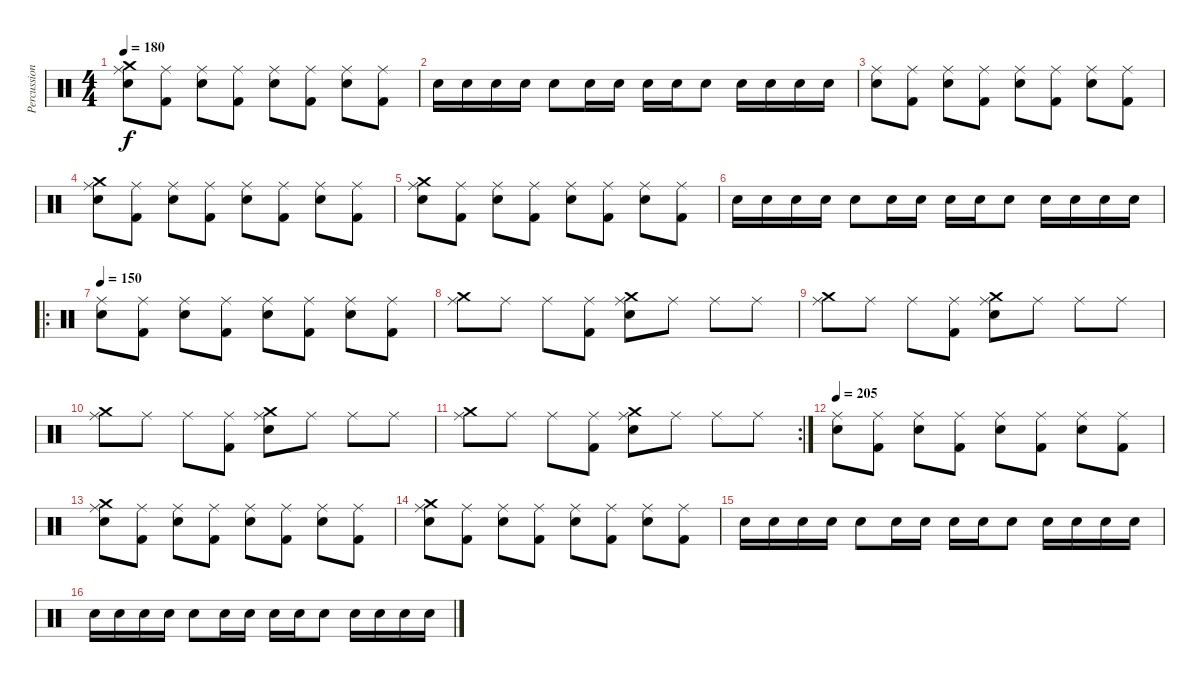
\track ("Percussion" "Percussion") {instrument percussion}
\staff {score}
\articulation defaults
\ts (4 4)
\tempo 180
\clef neutral
\ks c
("Crash medium (hit)" "Snare (hit) 2" "Ride (middle)").8{dy f} ("Kick (hit) 2" "Ride (middle)").8 ("Snare (hit) 2" "Ride (middle)").8 ("Kick (hit) 2" "Ride (middle)").8 ("Snare (hit) 2" "Ride (middle)").8 ("Kick (hit) 2" "Ride (middle)").8 ("Snare (hit) 2" "Ride (middle)").8 ("Kick (hit) 2" "Ride (middle)").8 |
"Snare (hit) 2".16 "Snare (hit) 2".16 "Snare (hit) 2".16 "Snare (hit) 2".16 "Snare (hit) 2".8 "Snare (hit) 2".16 "Snare (hit) 2".16 "Snare (hit) 2".16 "Snare (hit) 2".16 "Snare (hit) 2".8 "Snare (hit) 2".16 "Snare (hit) 2".16 "Snare (hit) 2".16 "Snare (hit) 2".16 |
("Snare (hit) 2" "Ride (middle)").8 ("Kick (hit) 2" "Ride (middle)").8 ("Snare (hit) 2" "Ride (middle)").8 ("Kick (hit) 2" "Ride (middle)").8 ("Snare (hit) 2" "Ride (middle)").8 ("Kick (hit) 2" "Ride (middle)").8 ("Snare (hit) 2" "Ride (middle)").8 ("Kick (hit) 2" "Ride (middle)").8 |
("Crash medium (hit)" "Snare (hit) 2" "Ride (middle)").8 ("Kick (hit) 2" "Ride (middle)").8 ("Snare (hit) 2" "Ride (middle)").8 ("Kick (hit) 2" "Ride (middle)").8 ("Snare (hit) 2" "Ride (middle)").8 ("Kick (hit) 2" "Ride (middle)").8 ("Snare (hit) 2" "Ride (middle)").8 ("Kick (hit) 2" "Ride (middle)").8 |
("Crash medium (hit)" "Snare (hit) 2" "Ride (middle)").8 ("Kick (hit) 2" "Ride (middle)").8 ("Snare (hit) 2" "Ride (middle)").8 ("Kick (hit) 2" "Ride (middle)").8 ("Snare (hit) 2" "Ride (middle)").8 ("Kick (hit) 2" "Ride (middle)").8 ("Snare (hit) 2" "Ride (middle)").8 ("Kick (hit) 2" "Ride (middle)").8 |
"Snare (hit) 2".16 "Snare (hit) 2".16 "Snare (hit) 2".16 "Snare (hit) 2".16 "Snare (hit) 2".8 "Snare (hit) 2".16 "Snare (hit) 2".16 "Snare (hit) 2".16 "Snare (hit) 2".16 "Snare (hit) 2".8 "Snare (hit) 2".16 "Snare (hit) 2".16 "Snare (hit) 2".16 "Snare (hit) 2".16 |
\ro
\tempo 150
("Snare (hit) 2" "Ride (middle)").8 ("Kick (hit) 2" "Ride (middle)").8 ("Snare (hit) 2" "Ride (middle)").8 ("Kick (hit) 2" "Ride (middle)").8 ("Snare (hit) 2" "Ride (middle)").8 ("Kick (hit) 2" "Ride (middle)").8 ("Snare (hit) 2" "Ride (middle)").8 ("Kick (hit) 2" "Ride (middle)").8 |
("Crash medium (hit)" "Ride (middle)").8 "Ride (middle)".8 "Ride (middle)".8 ("Kick (hit) 2" "Ride (middle)").8 ("Crash medium (hit)" "Snare (hit) 2" "Ride (middle)").8 "Ride (middle)".8 "Ride (middle)".8 "Ride (middle)".8 |
("Crash medium (hit)" "Ride (middle)").8 "Ride (middle)".8 "Ride (middle)".8 ("Kick (hit) 2" "Ride (middle)").8 ("Crash medium (hit)" "Snare (hit) 2" "Ride (middle)").8 "Ride (middle)".8 "Ride (middle)".8 "Ride (middle)".8 |
("Crash medium (hit)" "Ride (middle)").8 "Ride (middle)".8 "Ride (middle)".8 ("Kick (hit) 2" "Ride (middle)").8 ("Crash medium (hit)" "Snare (hit) 2" "Ride (middle)").8 "Ride (middle)".8 "Ride (middle)".8 "Ride (middle)".8 |
\rc 2
("Crash medium (hit)" "Ride (middle)").8 "Ride (middle)".8 "Ride (middle)".8 ("Kick (hit) 2" "Ride (middle)").8 ("Crash medium (hit)" "Snare (hit) 2" "Ride (middle)").8 "Ride (middle)".8 "Ride (middle)".8 "Ride (middle)".8 |
\tempo 205
("Snare (hit) 2" "Ride (middle)").8 ("Kick (hit) 2" "Ride (middle)").8 ("Snare (hit) 2" "Ride (middle)").8 ("Kick (hit) 2" "Ride (middle)").8 ("Snare (hit) 2" "Ride (middle)").8 ("Kick (hit) 2" "Ride (middle)").8 ("Snare (hit) 2" "Ride (middle)").8 ("Kick (hit) 2" "Ride (middle)").8 |
("Crash medium (hit)" "Snare (hit) 2" "Ride (middle)").8 ("Kick (hit) 2" "Ride (middle)").8 ("Snare (hit) 2" "Ride (middle)").8 ("Kick (hit) 2" "Ride (middle)").8 ("Snare (hit) 2" "Ride (middle)").8 ("Kick (hit) 2" "Ride (middle)").8 ("Snare (hit) 2" "Ride (middle)").8 ("Kick (hit) 2" "Ride (middle)").8 |
("Crash medium (hit)" "Snare (hit) 2" "Ride (middle)").8 ("Kick (hit) 2" "Ride (middle)").8 ("Snare (hit) 2" "Ride (middle)").8 ("Kick (hit) 2" "Ride (middle)").8 ("Snare (hit) 2" "Ride (middle)").8 ("Kick (hit) 2" "Ride (middle)").8 ("Snare (hit) 2" "Ride (middle)").8 ("Kick (hit) 2" "Ride (middle)").8 |
"Snare (hit) 2".16 "Snare (hit) 2".16 "Snare (hit) 2".16 "Snare (hit) 2".16 "Snare (hit) 2".8 "Snare (hit) 2".16 "Snare (hit) 2".16 "Snare (hit) 2".16 "Snare (hit) 2".16 "Snare (hit) 2".8 "Snare (hit) 2".16 "Snare (hit) 2".16 "Snare (hit) 2".16 "Snare (hit) 2".16 |
"Snare (hit) 2".16 "Snare (hit) 2".16 "Snare (hit) 2".16 "Snare (hit) 2".16 "Snare (hit) 2".8 "Snare (hit) 2".16 "Snare (hit) 2".16 "Snare (hit) 2".16 "Snare (hit) 2".16 "Snare (hit) 2".8 "Snare (hit) 2".16 "Snare (hit) 2".16 "Snare (hit) 2".16 "Snare (hit) 2".16
